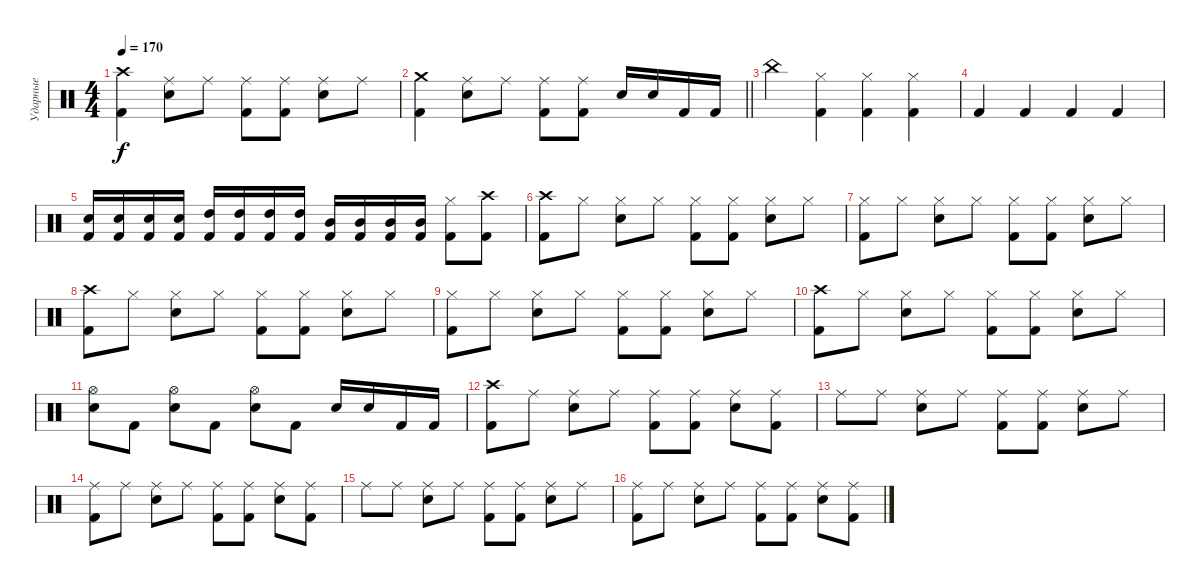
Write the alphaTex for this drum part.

\track ("Ударные" "Ударные") {instrument percussion}
\staff {score}
\articulation defaults
\ts (4 4)
\tempo 170
\clef neutral
\ks c
("Crash high (hit)" "Kick (hit) 2").4{dy f} ("Ride (middle)" "Electric Snare (hit)").8 "Ride (middle)".8 ("Ride (middle)" "Kick (hit) 2").8 ("Ride (middle)" "Kick (hit) 2").8 ("Ride (middle)" "Electric Snare (hit)").8 "Ride (middle)".8 |
\barLineRight lightlight
("Crash medium (hit)" "Kick (hit) 2").4 ("Ride (middle)" "Electric Snare (hit)").8 "Ride (middle)".8 ("Ride (middle)" "Kick (hit) 2").8 ("Ride (middle)" "Kick (hit) 2").8 "Electric Snare (hit)".16 "Electric Snare (hit)".16 "Kick (hit) 2".16 "Kick (hit) 2".16 |
"China (hit)".4 ("Hi-Hat (closed)" "Kick (hit) 2").4 ("Hi-Hat (closed)" "Kick (hit) 2").4 ("Hi-Hat (closed)" "Kick (hit) 2").4 |
"Kick (hit) 2".4 "Kick (hit) 2".4 "Kick (hit) 2".4 "Kick (hit) 2".4 |
("Electric Snare (hit)" "Kick (hit) 2").16 ("Electric Snare (hit)" "Kick (hit) 2").16 ("Electric Snare (hit)" "Kick (hit) 2").16 ("Electric Snare (hit)" "Kick (hit) 2").16 ("High Tom (hit)" "Kick (hit) 2").16 ("High Tom (hit)" "Kick (hit) 2").16 ("High Tom (hit)" "Kick (hit) 2").16 ("High Tom (hit)" "Kick (hit) 2").16 ("Mid Tom (hit)" "Kick (hit) 2").16 ("Mid Tom (hit)" "Kick (hit) 2").16 ("Mid Tom (hit)" "Kick (hit) 2").16 ("Mid Tom (hit)" "Kick (hit) 2").16 ("Hi-Hat (closed)" "Kick (hit) 2").8 ("Crash high (hit)" "Kick (hit) 2").8 |
("Crash high (hit)" "Kick (hit) 2").8 "Hi-Hat (closed)".8 ("Hi-Hat (closed)" "Electric Snare (hit)").8 "Hi-Hat (closed)".8 ("Hi-Hat (closed)" "Kick (hit) 2").8 ("Hi-Hat (closed)" "Kick (hit) 2").8 ("Hi-Hat (closed)" "Electric Snare (hit)").8 "Hi-Hat (closed)".8 |
("Hi-Hat (closed)" "Kick (hit) 2").8 "Hi-Hat (closed)".8 ("Hi-Hat (closed)" "Electric Snare (hit)").8 "Hi-Hat (closed)".8 ("Hi-Hat (closed)" "Kick (hit) 2").8 ("Hi-Hat (closed)" "Kick (hit) 2").8 ("Hi-Hat (closed)" "Electric Snare (hit)").8 "Hi-Hat (closed)".8 |
("Crash high (hit)" "Kick (hit) 2").8 "Hi-Hat (closed)".8 ("Hi-Hat (closed)" "Electric Snare (hit)").8 "Hi-Hat (closed)".8 ("Hi-Hat (closed)" "Kick (hit) 2").8 ("Hi-Hat (closed)" "Kick (hit) 2").8 ("Hi-Hat (closed)" "Electric Snare (hit)").8 "Hi-Hat (closed)".8 |
("Hi-Hat (closed)" "Kick (hit) 2").8 "Hi-Hat (closed)".8 ("Hi-Hat (closed)" "Electric Snare (hit)").8 "Hi-Hat (closed)".8 ("Hi-Hat (closed)" "Kick (hit) 2").8 ("Hi-Hat (closed)" "Kick (hit) 2").8 ("Hi-Hat (closed)" "Electric Snare (hit)").8 "Hi-Hat (closed)".8 |
("Crash high (hit)" "Kick (hit) 2").8 "Hi-Hat (closed)".8 ("Hi-Hat (closed)" "Electric Snare (hit)").8 "Hi-Hat (closed)".8 ("Hi-Hat (closed)" "Kick (hit) 2").8 ("Hi-Hat (closed)" "Kick (hit) 2").8 ("Hi-Hat (closed)" "Electric Snare (hit)").8 "Hi-Hat (closed)".8 |
("Hi-Hat (open)" "Electric Snare (hit)").8 "Kick (hit) 2".8 ("Hi-Hat (open)" "Electric Snare (hit)").8 "Kick (hit) 2".8 ("Hi-Hat (open)" "Electric Snare (hit)").8 "Kick (hit) 2".8 "Electric Snare (hit)".16 "Electric Snare (hit)".16 "Kick (hit) 2".16 "Kick (hit) 2".16 |
("Crash high (hit)" "Kick (hit) 2").8 "Ride (middle)".8 ("Ride (middle)" "Electric Snare (hit)").8 "Ride (middle)".8 ("Ride (middle)" "Kick (hit) 2").8 ("Ride (middle)" "Kick (hit) 2").8 ("Ride (middle)" "Electric Snare (hit)").8 ("Ride (middle)" "Kick (hit) 2").8 |
"Ride (middle)".8 "Ride (middle)".8 ("Ride (middle)" "Electric Snare (hit)").8 "Ride (middle)".8 ("Ride (middle)" "Kick (hit) 2").8 ("Ride (middle)" "Kick (hit) 2").8 ("Ride (middle)" "Electric Snare (hit)").8 "Ride (middle)".8 |
("Ride (middle)" "Kick (hit) 2").8 "Ride (middle)".8 ("Ride (middle)" "Electric Snare (hit)").8 "Ride (middle)".8 ("Ride (middle)" "Kick (hit) 2").8 ("Ride (middle)" "Kick (hit) 2").8 ("Ride (middle)" "Electric Snare (hit)").8 ("Ride (middle)" "Kick (hit) 2").8 |
"Ride (middle)".8 "Ride (middle)".8 ("Ride (middle)" "Electric Snare (hit)").8 "Ride (middle)".8 ("Ride (middle)" "Kick (hit) 2").8 ("Ride (middle)" "Kick (hit) 2").8 ("Ride (middle)" "Electric Snare (hit)").8 "Ride (middle)".8 |
("Ride (middle)" "Kick (hit) 2").8 "Ride (middle)".8 ("Ride (middle)" "Electric Snare (hit)").8 "Ride (middle)".8 ("Ride (middle)" "Kick (hit) 2").8 ("Ride (middle)" "Kick (hit) 2").8 ("Ride (middle)" "Electric Snare (hit)").8 ("Ride (middle)" "Kick (hit) 2").8
